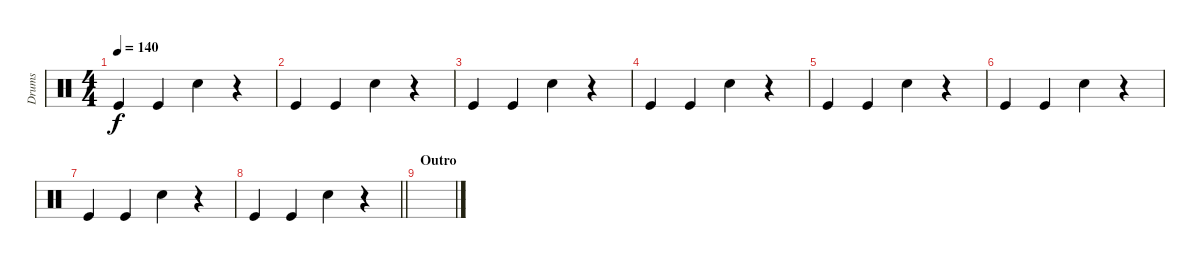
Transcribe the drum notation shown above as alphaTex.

\track ("Drums" "Drums") {instrument percussion}
\staff {score}
\articulation defaults
\ts (4 4)
\tempo 140
\clef neutral
\ks c "Kick (hit)".4{dy f} "Kick (hit)".4 "Snare (hit) 2".4
r.4 |
"Kick (hit)".4 "Kick (hit)".4 "Snare (hit) 2".4 r.4 |
"Kick (hit)".4 "Kick (hit)".4 "Snare (hit) 2".4 r.4 |
"Kick (hit)".4 "Kick (hit)".4 "Snare (hit) 2".4 r.4 |
"Kick (hit)".4 "Kick (hit)".4 "Snare (hit) 2".4 r.4 |
"Kick (hit)".4 "Kick (hit)".4 "Snare (hit) 2".4 r.4 |
"Kick (hit)".4 "Kick (hit)".4 "Snare (hit) 2".4 r.4 |
\barLineRight lightlight "Kick (hit)".4 "Kick (hit)".4 "Snare (hit) 2".4
r.4 |
\section ("" "Outro")
